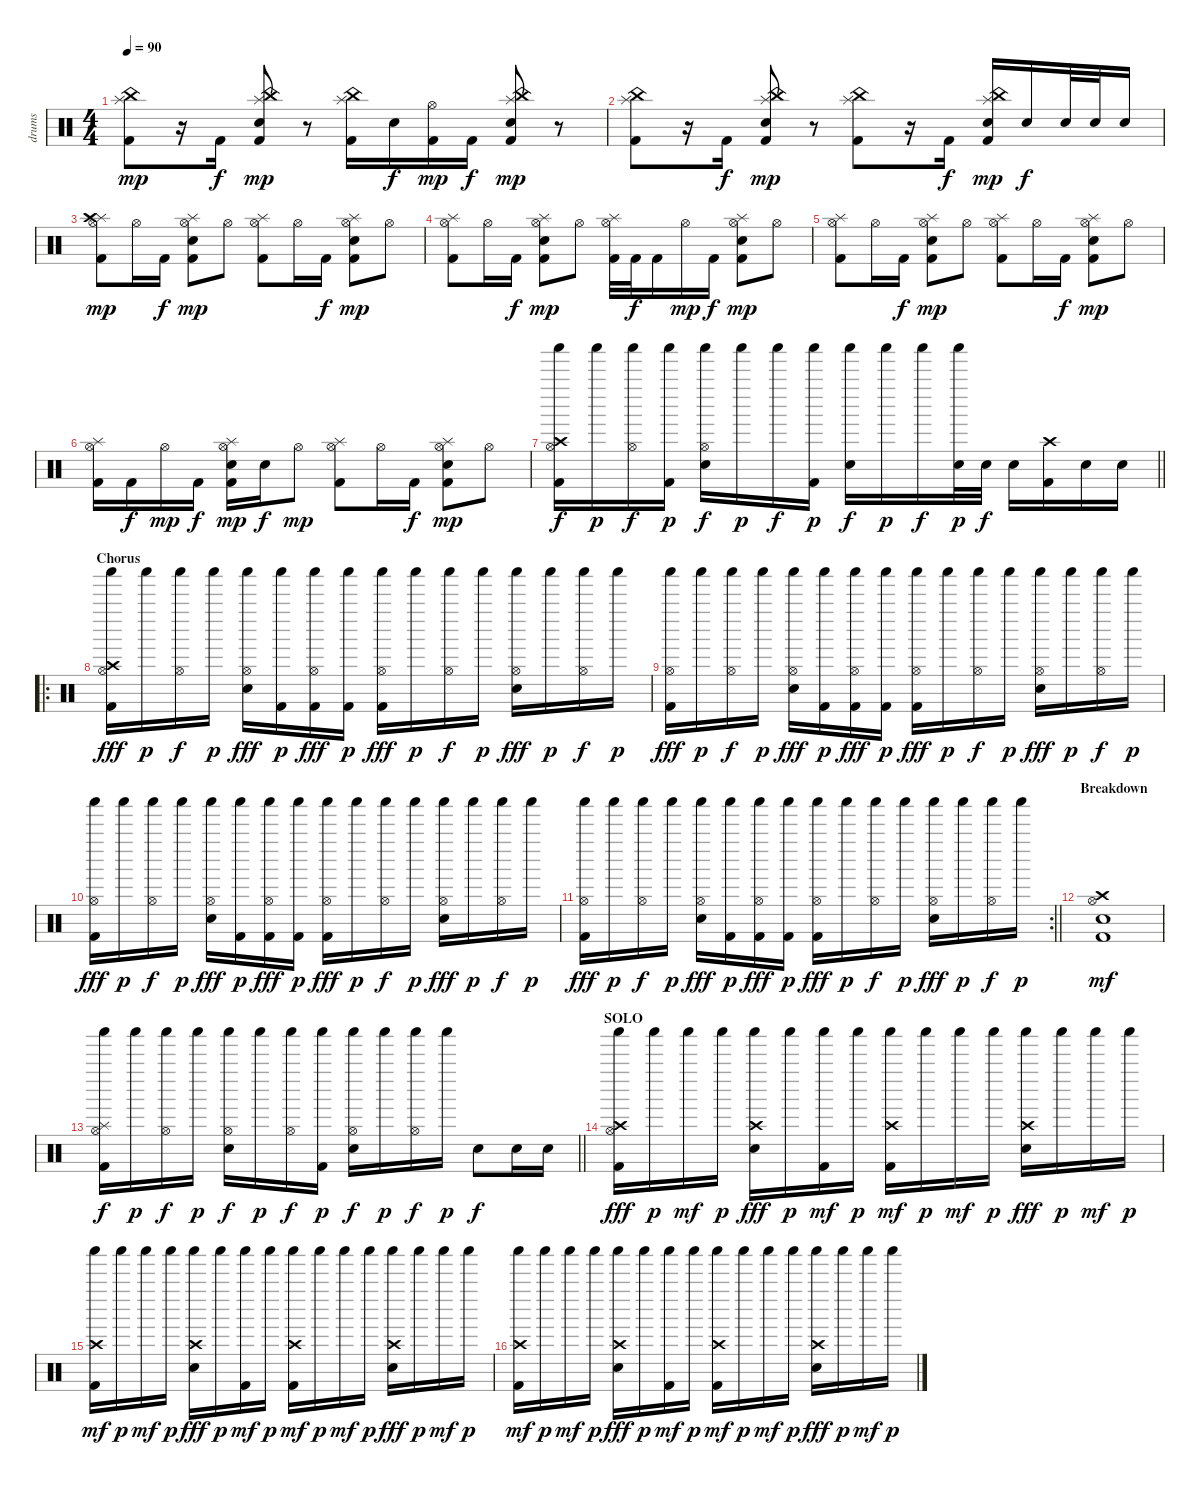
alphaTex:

\track ("drums" "drums") {instrument percussion}
\staff {score}
\articulation defaults
\ts (4 4)
\tempo 90
\clef neutral
\ks c
("Kick (hit) 2" "Splash (hit)" "China (hit)").8{dy mp} r.16 "Kick (hit) 2".16{dy f} ("Kick (hit) 2" "Splash (hit)" "China (hit)" "Snare (hit) 2").8{dy mp} r.8 ("Kick (hit) 2" "Splash (hit)" "China (hit)").16 "Snare (hit) 2".16{dy f} ("Kick (hit) 2" "Hi-Hat (open)").16{dy mp} "Kick (hit) 2".16{dy f} ("Kick (hit) 2" "Splash (hit)" "China (hit)" "Snare (hit) 2").8{dy mp} r.8 |
("Kick (hit) 2" "Splash (hit)" "China (hit)").8 r.16 "Kick (hit) 2".16{dy f} ("Kick (hit) 2" "Splash (hit)" "China (hit)" "Snare (hit) 2").8{dy mp} r.8 ("Kick (hit) 2" "Splash (hit)" "China (hit)").8 r.16 "Kick (hit) 2".16{dy f} ("Kick (hit) 2" "Splash (hit)" "China (hit)" "Snare (hit) 2").16{dy mp} "Snare (hit) 2".16{dy f} "Snare (hit) 2".32 "Snare (hit) 2".32 "Snare (hit) 2".16 |
("Kick (hit) 2" "Splash (hit)" "Crash high (hit)" "Hi-Hat (open)").8{dy mp} "Hi-Hat (open)".16 "Kick (hit) 2".16{dy f} ("Kick (hit) 2" "Splash (hit)" "Hi-Hat (open)" "Snare (hit) 2").8{dy mp} "Hi-Hat (open)".8 ("Kick (hit) 2" "Splash (hit)" "Hi-Hat (open)").8 "Hi-Hat (open)".16 "Kick (hit) 2".16{dy f} ("Kick (hit) 2" "Splash (hit)" "Hi-Hat (open)" "Snare (hit) 2").8{dy mp} "Hi-Hat (open)".8 |
("Kick (hit) 2" "Splash (hit)" "Hi-Hat (open)").8 "Hi-Hat (open)".16 "Kick (hit) 2".16{dy f} ("Kick (hit) 2" "Splash (hit)" "Hi-Hat (open)" "Snare (hit) 2").8{dy mp} "Hi-Hat (open)".8 ("Kick (hit) 2" "Splash (hit)" "Hi-Hat (open)").32 "Kick (hit) 2".32{dy f} "Kick (hit) 2".16 "Hi-Hat (open)".16{dy mp} "Kick (hit) 2".16{dy f} ("Kick (hit) 2" "Splash (hit)" "Hi-Hat (open)" "Snare (hit) 2").8{dy mp} "Hi-Hat (open)".8 |
("Kick (hit) 2" "Splash (hit)" "Hi-Hat (open)").8 "Hi-Hat (open)".16 "Kick (hit) 2".16{dy f} ("Kick (hit) 2" "Splash (hit)" "Hi-Hat (open)" "Snare (hit) 2").8{dy mp} "Hi-Hat (open)".8 ("Kick (hit) 2" "Splash (hit)" "Hi-Hat (open)").8 "Hi-Hat (open)".16 "Kick (hit) 2".16{dy f} ("Kick (hit) 2" "Splash (hit)" "Hi-Hat (open)" "Snare (hit) 2").8{dy mp} "Hi-Hat (open)".8 |
("Kick (hit) 2" "Splash (hit)" "Hi-Hat (open)").16 "Kick (hit) 2".16{dy f} "Hi-Hat (open)".16{dy mp} "Kick (hit) 2".16{dy f} ("Kick (hit) 2" "Splash (hit)" "Hi-Hat (open)" "Snare (hit) 2").16{dy mp} "Snare (hit) 2".16{dy f} "Hi-Hat (open)".8{dy mp} ("Kick (hit) 2" "Splash (hit)" "Hi-Hat (open)").8 "Hi-Hat (open)".16 "Kick (hit) 2".16{dy f} ("Kick (hit) 2" "Splash (hit)" "Hi-Hat (open)" "Snare (hit) 2").8{dy mp} "Hi-Hat (open)".8 |
\barLineRight lightlight
("Kick (hit) 2" "Crash high (hit)" "Shaker (hit)" "Hi-Hat (open)").16{dy f} "Shaker (hit)".16{dy p} ("Shaker (hit)" "Hi-Hat (open)").16{dy f} ("Kick (hit) 2" "Shaker (hit)").16{dy p} ("Shaker (hit)" "Hi-Hat (open)" "Snare (hit) 2").16{dy f} "Shaker (hit)".16{dy p} "Shaker (hit)".16{dy f} ("Kick (hit) 2" "Shaker (hit)").16{dy p} ("Shaker (hit)" "Electric Snare (hit)").16{dy f} "Shaker (hit)".16{dy p} "Shaker (hit)".16{dy f} ("Shaker (hit)" "Electric Snare (hit)").32{dy p} "Electric Snare (hit)".32{dy f} "Electric Snare (hit)".16 ("Kick (hit) 2" "Crash high (hit)").16 "Electric Snare (hit)".16 "Electric Snare (hit)".16 |
\ro
\section ("" "Chorus")
("Kick (hit) 2" "Crash high (hit)" "Shaker (hit)" "Hi-Hat (open)").16{dy fff} "Shaker (hit)".16{dy p} ("Shaker (hit)" "Hi-Hat (open)").16{dy f} "Shaker (hit)".16{dy p} ("Shaker (hit)" "Hi-Hat (open)" "Snare (hit) 2").16{dy fff} ("Kick (hit) 2" "Shaker (hit)").16{dy p} ("Kick (hit) 2" "Shaker (hit)" "Hi-Hat (open)").16{dy fff} ("Kick (hit) 2" "Shaker (hit)").16{dy p} ("Kick (hit) 2" "Shaker (hit)" "Hi-Hat (open)").16{dy fff} "Shaker (hit)".16{dy p} ("Shaker (hit)" "Hi-Hat (open)").16{dy f} "Shaker (hit)".16{dy p} ("Shaker (hit)" "Hi-Hat (open)" "Snare (hit) 2").16{dy fff} "Shaker (hit)".16{dy p} ("Shaker (hit)" "Hi-Hat (open)").16{dy f} "Shaker (hit)".16{dy p} |
("Kick (hit) 2" "Shaker (hit)" "Hi-Hat (open)").16{dy fff} "Shaker (hit)".16{dy p} ("Shaker (hit)" "Hi-Hat (open)").16{dy f} "Shaker (hit)".16{dy p} ("Shaker (hit)" "Hi-Hat (open)" "Snare (hit) 2").16{dy fff} ("Kick (hit) 2" "Shaker (hit)").16{dy p} ("Kick (hit) 2" "Shaker (hit)" "Hi-Hat (open)").16{dy fff} ("Kick (hit) 2" "Shaker (hit)").16{dy p} ("Kick (hit) 2" "Shaker (hit)" "Hi-Hat (open)").16{dy fff} "Shaker (hit)".16{dy p} ("Shaker (hit)" "Hi-Hat (open)").16{dy f} "Shaker (hit)".16{dy p} ("Shaker (hit)" "Hi-Hat (open)" "Snare (hit) 2").16{dy fff} "Shaker (hit)".16{dy p} ("Shaker (hit)" "Hi-Hat (open)").16{dy f} "Shaker (hit)".16{dy p} |
("Kick (hit) 2" "Shaker (hit)" "Hi-Hat (open)").16{dy fff} "Shaker (hit)".16{dy p} ("Shaker (hit)" "Hi-Hat (open)").16{dy f} "Shaker (hit)".16{dy p} ("Shaker (hit)" "Hi-Hat (open)" "Snare (hit) 2").16{dy fff} ("Kick (hit) 2" "Shaker (hit)").16{dy p} ("Kick (hit) 2" "Shaker (hit)" "Hi-Hat (open)").16{dy fff} ("Kick (hit) 2" "Shaker (hit)").16{dy p} ("Kick (hit) 2" "Shaker (hit)" "Hi-Hat (open)").16{dy fff} "Shaker (hit)".16{dy p} ("Shaker (hit)" "Hi-Hat (open)").16{dy f} "Shaker (hit)".16{dy p} ("Shaker (hit)" "Hi-Hat (open)" "Snare (hit) 2").16{dy fff} "Shaker (hit)".16{dy p} ("Shaker (hit)" "Hi-Hat (open)").16{dy f} "Shaker (hit)".16{dy p} |
\rc 2
\barLineRight lightlight
("Kick (hit) 2" "Shaker (hit)" "Hi-Hat (open)").16{dy fff} "Shaker (hit)".16{dy p} ("Shaker (hit)" "Hi-Hat (open)").16{dy f} "Shaker (hit)".16{dy p} ("Shaker (hit)" "Hi-Hat (open)" "Snare (hit) 2").16{dy fff} ("Kick (hit) 2" "Shaker (hit)").16{dy p} ("Kick (hit) 2" "Shaker (hit)" "Hi-Hat (open)").16{dy fff} ("Kick (hit) 2" "Shaker (hit)").16{dy p} ("Kick (hit) 2" "Shaker (hit)" "Hi-Hat (open)").16{dy fff} "Shaker (hit)".16{dy p} ("Shaker (hit)" "Hi-Hat (open)").16{dy f} "Shaker (hit)".16{dy p} ("Shaker (hit)" "Hi-Hat (open)" "Snare (hit) 2").16{dy fff} "Shaker (hit)".16{dy p} ("Shaker (hit)" "Hi-Hat (open)").16{dy f} "Shaker (hit)".16{dy p} |
\section ("" "Breakdown")
("Kick (hit) 2" "Crash high (hit)" "Hi-Hat (open)" "Snare (hit) 2").1{dy mf} |
\barLineRight lightlight
("Kick (hit) 2" "Splash (hit)" "Shaker (hit)" "Hi-Hat (open)").16{dy f} "Shaker (hit)".16{dy p} ("Shaker (hit)" "Hi-Hat (open)").16{dy f} "Shaker (hit)".16{dy p} ("Shaker (hit)" "Hi-Hat (open)" "Snare (hit) 2").16{dy f} "Shaker (hit)".16{dy p} ("Shaker (hit)" "Hi-Hat (open)").16{dy f} ("Kick (hit) 2" "Shaker (hit)").16{dy p} ("Shaker (hit)" "Hi-Hat (open)" "Snare (hit) 2").16{dy f} "Shaker (hit)".16{dy p} ("Shaker (hit)" "Hi-Hat (open)").16{dy f} "Shaker (hit)".16{dy p} "Electric Snare (hit)".8{dy f} "Electric Snare (hit)".16 "Electric Snare (hit)".16 |
\section ("" "SOLO")
("Kick (hit) 2" "Crash high (hit)" "Shaker (hit)" "Hi-Hat (open)").16{dy fff} "Shaker (hit)".16{dy p} "Shaker (hit)".16{dy mf} "Shaker (hit)".16{dy p} ("Crash high (hit)" "Shaker (hit)" "Snare (hit) 2").16{dy fff} "Shaker (hit)".16{dy p} ("Kick (hit) 2" "Shaker (hit)").16{dy mf} "Shaker (hit)".16{dy p} ("Kick (hit) 2" "Crash high (hit)" "Shaker (hit)").16{dy mf} "Shaker (hit)".16{dy p} "Shaker (hit)".16{dy mf} "Shaker (hit)".16{dy p} ("Crash high (hit)" "Shaker (hit)" "Snare (hit) 2").16{dy fff} "Shaker (hit)".16{dy p} "Shaker (hit)".16{dy mf} "Shaker (hit)".16{dy p} |
("Kick (hit) 2" "Crash high (hit)" "Shaker (hit)").16{dy mf} "Shaker (hit)".16{dy p} "Shaker (hit)".16{dy mf} "Shaker (hit)".16{dy p} ("Crash high (hit)" "Shaker (hit)" "Snare (hit) 2").16{dy fff} "Shaker (hit)".16{dy p} ("Kick (hit) 2" "Shaker (hit)").16{dy mf} "Shaker (hit)".16{dy p} ("Kick (hit) 2" "Crash high (hit)" "Shaker (hit)").16{dy mf} "Shaker (hit)".16{dy p} "Shaker (hit)".16{dy mf} "Shaker (hit)".16{dy p} ("Crash high (hit)" "Shaker (hit)" "Snare (hit) 2").16{dy fff} "Shaker (hit)".16{dy p} "Shaker (hit)".16{dy mf} "Shaker (hit)".16{dy p} |
("Kick (hit) 2" "Crash high (hit)" "Shaker (hit)").16{dy mf} "Shaker (hit)".16{dy p} "Shaker (hit)".16{dy mf} "Shaker (hit)".16{dy p} ("Crash high (hit)" "Shaker (hit)" "Snare (hit) 2").16{dy fff} "Shaker (hit)".16{dy p} ("Kick (hit) 2" "Shaker (hit)").16{dy mf} "Shaker (hit)".16{dy p} ("Kick (hit) 2" "Crash high (hit)" "Shaker (hit)").16{dy mf} "Shaker (hit)".16{dy p} "Shaker (hit)".16{dy mf} "Shaker (hit)".16{dy p} ("Crash high (hit)" "Shaker (hit)" "Snare (hit) 2").16{dy fff} "Shaker (hit)".16{dy p} "Shaker (hit)".16{dy mf} "Shaker (hit)".16{dy p}
